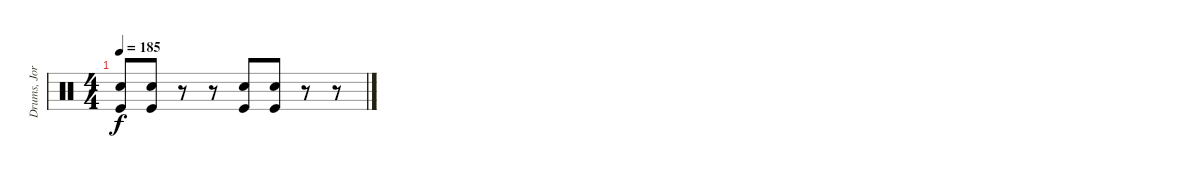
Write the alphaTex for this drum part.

\track ("Drums, Jorye Sáez" "Drums, Jor") {instrument percussion}
\staff {score}
\articulation defaults
\ts (4 4)
\tempo 185
\clef neutral
\ks c
("Electric Snare (hit)" "Kick (hit)").8{dy f} ("Electric Snare (hit)" "Kick (hit)").8 r.8 r.8 ("Electric Snare (hit)" "Kick (hit)").8 ("Electric Snare (hit)" "Kick (hit)").8 r.8 r.8
